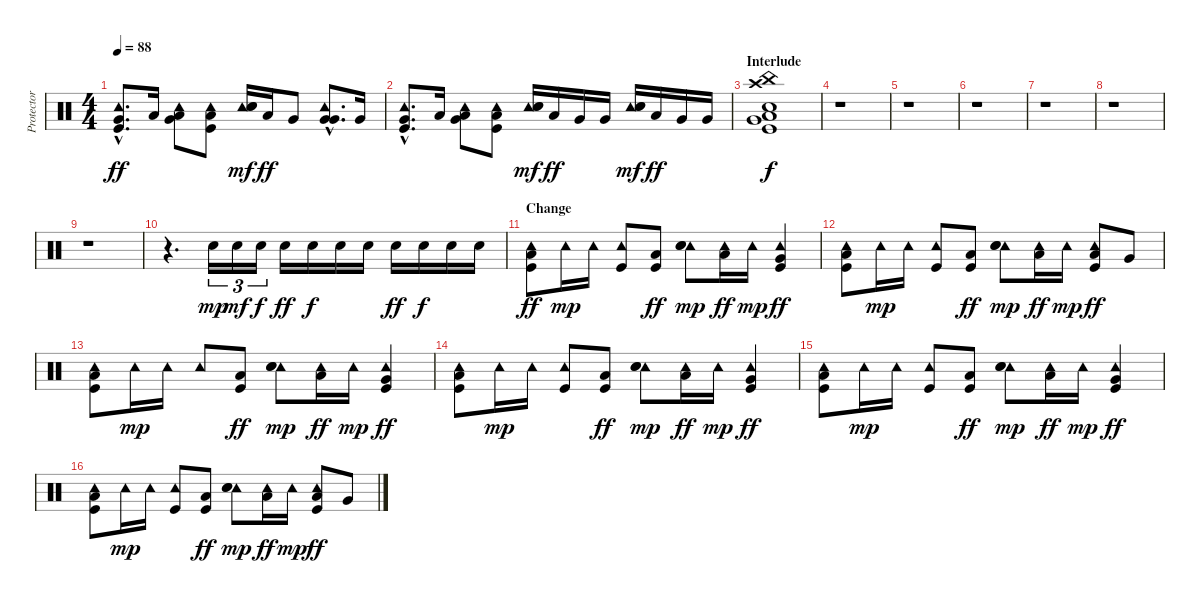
\track ("Protector (Drums)" "Protector ") {instrument percussion}
\staff {score}
\articulation defaults
\ts (4 4)
\tempo 88
\clef neutral
\ks c
("Tambourine (hit)"{hac} "Very Low Tom (hit)"{hac} "Kick (hit)"{hac}).8{d dy ff} "Low Tom (hit)".16 ("Tambourine (hit)" "Low Tom (hit)" "Very Low Tom (hit)").8{bu 120} ("Tambourine (hit)" "Low Floor Tom (hit)" "Kick (hit)").8 ("Tambourine (hit)" "Snare (hit) 2" "Electric Snare (hit)").16{dy mf} "Low Tom (hit)".16{dy ff} "Very Low Tom (hit)".8 ("Tambourine (hit)"{hac} "Very Low Tom (hit)"{hac} "Very Low Tom (hit)"{hac}).8{d bu 120} "Very Low Tom (hit)".16 |
("Tambourine (hit)"{hac} "Very Low Tom (hit)"{hac} "Kick (hit)"{hac}).8{d} "Low Tom (hit)".16 ("Tambourine (hit)" "Low Tom (hit)" "Very Low Tom (hit)").8{bu 120} ("Tambourine (hit)" "Low Floor Tom (hit)" "Kick (hit)").8 ("Tambourine (hit)" "Electric Snare (hit)" "Snare (hit) 2").16{dy mf} "Low Tom (hit)".16{dy ff} "Very Low Tom (hit)".16 "Very Low Tom (hit)".16 ("Tambourine (hit)" "Electric Snare (hit)" "Snare (hit) 2").16{dy mf} "Low Tom (hit)".16{dy ff} "Very Low Tom (hit)".16 "Very Low Tom (hit)".16 |
\section ("" "Interlude")
("Crash high (hit)" "China (hit)" "Low Tom (hit)" "Very Low Tom (hit)" "Snare (hit) 2" "Kick (hit)").1{dy f} |
r.1 |
r.1 |
r.1 |
r.1 |
r.1 |
r.1 |
r.4{d} "Electric Snare (hit)".16{tu (3 2) dy mp} "Electric Snare (hit)".16{tu (3 2) dy mf} "Electric Snare (hit)".16{tu (3 2) dy f} "Electric Snare (hit)".16{dy ff} "Electric Snare (hit)".16{dy f} "Electric Snare (hit)".16 "Electric Snare (hit)".16 "Electric Snare (hit)".16{dy ff} "Electric Snare (hit)".16{dy f} "Electric Snare (hit)".16 "Electric Snare (hit)".16 |
\section ("" "Change")
("Tambourine (hit)" "Low Floor Tom (hit)" "Kick (hit)").8{dy ff} "Tambourine (hit)".16{dy mp} "Tambourine (hit)".16 ("Tambourine (hit)" "Kick (hit)").8 ("Low Floor Tom (hit)" "Kick (hit)").8{dy ff} ("Tambourine (hit)" "Electric Snare (hit)" "Snare (hit) 2").8{dy mp} ("Tambourine (hit)" "Low Tom (hit)").16{dy ff} "Tambourine (hit)".16{dy mp} ("Tambourine (hit)" "Very Low Tom (hit)" "Kick (hit)").4{dy ff} |
("Tambourine (hit)" "Low Floor Tom (hit)" "Kick (hit)").8 "Tambourine (hit)".16{dy mp} "Tambourine (hit)".16 ("Tambourine (hit)" "Kick (hit)").8 ("Low Floor Tom (hit)" "Kick (hit)").8{dy ff} ("Tambourine (hit)" "Electric Snare (hit)" "Snare (hit) 2").8{dy mp} ("Tambourine (hit)" "Low Tom (hit)").16{dy ff} "Tambourine (hit)".16{dy mp} ("Tambourine (hit)" "Low Tom (hit)" "Kick (hit)").8{dy ff} "Very Low Tom (hit)".8 |
("Tambourine (hit)" "Low Floor Tom (hit)" "Kick (hit)").8 "Tambourine (hit)".16{dy mp} "Tambourine (hit)".16 "Tambourine (hit)".8 ("Low Floor Tom (hit)" "Kick (hit)").8{dy ff} ("Tambourine (hit)" "Electric Snare (hit)" "Snare (hit) 2").8{dy mp} ("Tambourine (hit)" "Low Tom (hit)").16{dy ff} "Tambourine (hit)".16{dy mp} ("Tambourine (hit)" "Very Low Tom (hit)" "Kick (hit)").4{dy ff} |
("Tambourine (hit)" "Low Floor Tom (hit)" "Kick (hit)").8 "Tambourine (hit)".16{dy mp} "Tambourine (hit)".16 ("Tambourine (hit)" "Kick (hit)").8 ("Low Floor Tom (hit)" "Kick (hit)").8{dy ff} ("Tambourine (hit)" "Electric Snare (hit)" "Snare (hit) 2").8{dy mp} ("Tambourine (hit)" "Low Tom (hit)").16{dy ff} "Tambourine (hit)".16{dy mp} ("Tambourine (hit)" "Very Low Tom (hit)" "Kick (hit)").4{dy ff} |
("Tambourine (hit)" "Low Floor Tom (hit)" "Kick (hit)").8 "Tambourine (hit)".16{dy mp} "Tambourine (hit)".16 ("Tambourine (hit)" "Kick (hit)").8 ("Low Floor Tom (hit)" "Kick (hit)").8{dy ff} ("Tambourine (hit)" "Electric Snare (hit)" "Snare (hit) 2").8{dy mp} ("Tambourine (hit)" "Low Tom (hit)").16{dy ff} "Tambourine (hit)".16{dy mp} ("Tambourine (hit)" "Very Low Tom (hit)" "Kick (hit)").4{dy ff} |
("Tambourine (hit)" "Low Floor Tom (hit)" "Kick (hit)").8 "Tambourine (hit)".16{dy mp} "Tambourine (hit)".16 ("Tambourine (hit)" "Kick (hit)").8 ("Low Floor Tom (hit)" "Kick (hit)").8{dy ff} ("Tambourine (hit)" "Electric Snare (hit)" "Snare (hit) 2").8{dy mp} ("Tambourine (hit)" "Low Tom (hit)").16{dy ff} "Tambourine (hit)".16{dy mp} ("Tambourine (hit)" "Low Tom (hit)" "Kick (hit)").8{dy ff} "Very Low Tom (hit)".8
